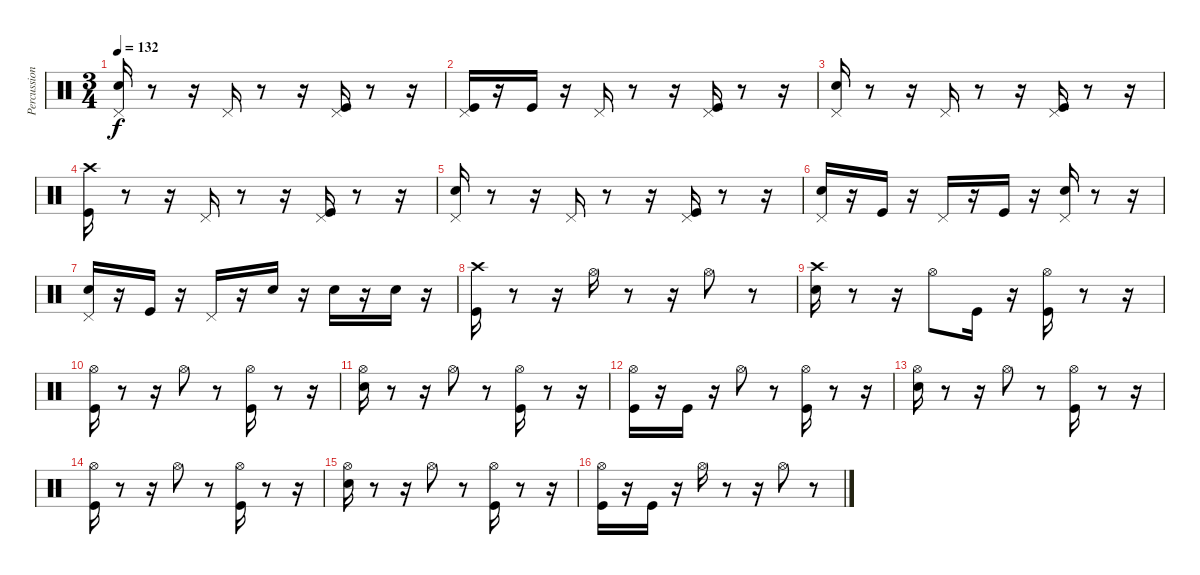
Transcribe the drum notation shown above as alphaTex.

\track ("Percussion" "Percussion") {instrument percussion}
\staff {score}
\articulation defaults
\ts (3 4)
\tempo 132
\clef neutral
\ks c
("Pedal Hi-Hat (hit)" "Snare (hit) 2").16{dy f} r.8 r.16 "Pedal Hi-Hat (hit)".16 r.8 r.16 ("Pedal Hi-Hat (hit)" "Kick (hit)").16 r.8 r.16 |
("Pedal Hi-Hat (hit)" "Kick (hit)").16 r.16 "Kick (hit)".16 r.16 "Pedal Hi-Hat (hit)".16 r.8 r.16 ("Pedal Hi-Hat (hit)" "Kick (hit)").16 r.8 r.16 |
("Pedal Hi-Hat (hit)" "Snare (hit) 2").16 r.8 r.16 "Pedal Hi-Hat (hit)".16 r.8 r.16 ("Pedal Hi-Hat (hit)" "Kick (hit)").16 r.8 r.16 |
("Kick (hit)" "Crash high (hit)").16 r.8 r.16 "Pedal Hi-Hat (hit)".16 r.8 r.16 ("Pedal Hi-Hat (hit)" "Kick (hit)").16 r.8 r.16 |
("Pedal Hi-Hat (hit)" "Snare (hit) 2").16 r.8 r.16 "Pedal Hi-Hat (hit)".16 r.8 r.16 ("Pedal Hi-Hat (hit)" "Kick (hit)").16 r.8 r.16 |
("Pedal Hi-Hat (hit)" "Snare (hit) 2").16 r.16 "Kick (hit)".16 r.16 "Pedal Hi-Hat (hit)".16 r.16 "Kick (hit)".16 r.16 ("Pedal Hi-Hat (hit)" "Snare (hit) 2").16 r.8 r.16 |
("Pedal Hi-Hat (hit)" "Snare (hit) 2").16 r.16 "Kick (hit)".16 r.16 "Pedal Hi-Hat (hit)".16 r.16 "Snare (hit) 2".16 r.16 "Snare (hit) 2".16 r.16 "Snare (hit) 2".16 r.16 |
("Kick (hit)" "Crash high (hit)").16 r.8 r.16 "Hi-Hat (open)".16 r.8 r.16 "Hi-Hat (open)".8 r.8 |
("Snare (hit) 2" "Crash high (hit)").16 r.8 r.16 "Hi-Hat (open)".8 "Kick (hit)".16 r.16 ("Hi-Hat (open)" "Kick (hit)").16 r.8 r.16 |
("Kick (hit)" "Hi-Hat (open)").16 r.8 r.16 "Hi-Hat (open)".8 r.8 ("Hi-Hat (open)" "Kick (hit)").16 r.8 r.16 |
("Hi-Hat (open)" "Snare (hit) 2").16 r.8 r.16 "Hi-Hat (open)".8 r.8 ("Hi-Hat (open)" "Kick (hit)").16 r.8 r.16 |
("Hi-Hat (open)" "Kick (hit)").16 r.16 "Kick (hit)".16 r.16 "Hi-Hat (open)".8 r.8 ("Kick (hit)" "Hi-Hat (open)").16 r.8 r.16 |
("Hi-Hat (open)" "Snare (hit) 2").16 r.8 r.16 "Hi-Hat (open)".8 r.8 ("Hi-Hat (open)" "Kick (hit)").16 r.8 r.16 |
("Hi-Hat (open)" "Kick (hit)").16 r.8 r.16 "Hi-Hat (open)".8 r.8 ("Kick (hit)" "Hi-Hat (open)").16 r.8 r.16 |
("Hi-Hat (open)" "Snare (hit) 2").16 r.8 r.16 "Hi-Hat (open)".8 r.8 ("Hi-Hat (open)" "Kick (hit)").16 r.8 r.16 |
("Hi-Hat (open)" "Kick (hit)").16 r.16 "Kick (hit)".16 r.16 "Hi-Hat (open)".16 r.8 r.16 "Hi-Hat (open)".8 r.8
